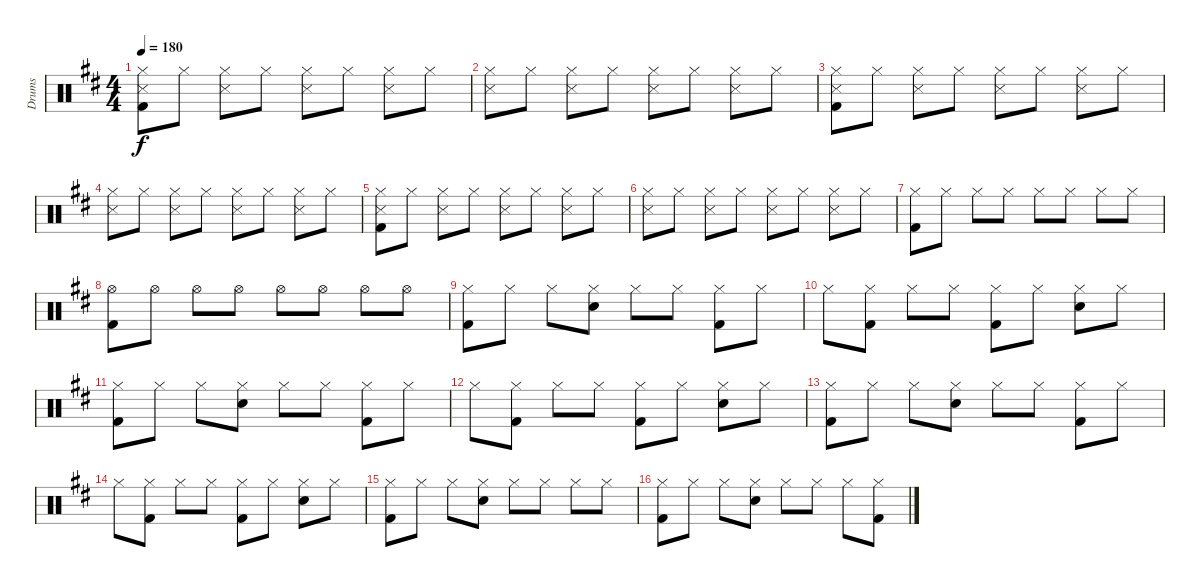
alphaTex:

\track ("Drums" "Drums") {instrument percussion}
\staff {score}
\articulation defaults
\ts (4 4)
\tempo 180
\clef neutral
\ks bminor
("Hi-Hat (closed)" "Snare (side stick) 3" "Kick (hit) 2").8{dy f} "Hi-Hat (closed)".8 ("Hi-Hat (closed)" "Snare (side stick) 3").8 "Hi-Hat (closed)".8 ("Hi-Hat (closed)" "Snare (side stick) 3").8 "Hi-Hat (closed)".8 ("Hi-Hat (closed)" "Snare (side stick) 3").8 "Hi-Hat (closed)".8 |
("Hi-Hat (closed)" "Snare (side stick) 3").8 "Hi-Hat (closed)".8 ("Hi-Hat (closed)" "Snare (side stick) 3").8 "Hi-Hat (closed)".8 ("Hi-Hat (closed)" "Snare (side stick) 3").8 "Hi-Hat (closed)".8 ("Hi-Hat (closed)" "Snare (side stick) 3").8 "Hi-Hat (closed)".8 |
("Hi-Hat (closed)" "Snare (side stick) 3" "Kick (hit) 2").8 "Hi-Hat (closed)".8 ("Hi-Hat (closed)" "Snare (side stick) 3").8 "Hi-Hat (closed)".8 ("Hi-Hat (closed)" "Snare (side stick) 3").8 "Hi-Hat (closed)".8 ("Hi-Hat (closed)" "Snare (side stick) 3").8 "Hi-Hat (closed)".8 |
("Hi-Hat (closed)" "Snare (side stick) 3").8 "Hi-Hat (closed)".8 ("Hi-Hat (closed)" "Snare (side stick) 3").8 "Hi-Hat (closed)".8 ("Hi-Hat (closed)" "Snare (side stick) 3").8 "Hi-Hat (closed)".8 ("Hi-Hat (closed)" "Snare (side stick) 3").8 "Hi-Hat (closed)".8 |
("Hi-Hat (closed)" "Snare (side stick) 3" "Kick (hit) 2").8 "Hi-Hat (closed)".8 ("Hi-Hat (closed)" "Snare (side stick) 3").8 "Hi-Hat (closed)".8 ("Hi-Hat (closed)" "Snare (side stick) 3").8 "Hi-Hat (closed)".8 ("Hi-Hat (closed)" "Snare (side stick) 3").8 "Hi-Hat (closed)".8 |
("Hi-Hat (closed)" "Snare (side stick) 3").8 "Hi-Hat (closed)".8 ("Hi-Hat (closed)" "Snare (side stick) 3").8 "Hi-Hat (closed)".8 ("Hi-Hat (closed)" "Snare (side stick) 3").8 "Hi-Hat (closed)".8 ("Hi-Hat (closed)" "Snare (side stick) 3").8 "Hi-Hat (closed)".8 |
("Hi-Hat (closed)" "Kick (hit) 2").8 "Hi-Hat (closed)".8 "Hi-Hat (closed)".8 "Hi-Hat (closed)".8 "Hi-Hat (closed)".8 "Hi-Hat (closed)".8 "Hi-Hat (closed)".8 "Hi-Hat (closed)".8 |
("Hi-Hat (open)" "Kick (hit) 2").8 "Hi-Hat (open)".8 "Hi-Hat (open)".8 "Hi-Hat (open)".8 "Hi-Hat (open)".8 "Hi-Hat (open)".8 "Hi-Hat (open)".8 "Hi-Hat (open)".8 |
("Hi-Hat (closed)" "Kick (hit) 2").8 "Hi-Hat (closed)".8 "Hi-Hat (closed)".8 ("Hi-Hat (closed)" "Electric Snare (hit)").8 "Hi-Hat (closed)".8 "Hi-Hat (closed)".8 ("Hi-Hat (closed)" "Kick (hit) 2").8 "Hi-Hat (closed)".8 |
"Hi-Hat (closed)".8 ("Hi-Hat (closed)" "Kick (hit) 2").8 "Hi-Hat (closed)".8 "Hi-Hat (closed)".8 ("Hi-Hat (closed)" "Kick (hit) 2").8 "Hi-Hat (closed)".8 ("Hi-Hat (closed)" "Electric Snare (hit)").8 "Hi-Hat (closed)".8 |
("Hi-Hat (closed)" "Kick (hit) 2").8 "Hi-Hat (closed)".8 "Hi-Hat (closed)".8 ("Hi-Hat (closed)" "Electric Snare (hit)").8 "Hi-Hat (closed)".8 "Hi-Hat (closed)".8 ("Hi-Hat (closed)" "Kick (hit) 2").8 "Hi-Hat (closed)".8 |
"Hi-Hat (closed)".8 ("Hi-Hat (closed)" "Kick (hit) 2").8 "Hi-Hat (closed)".8 "Hi-Hat (closed)".8 ("Hi-Hat (closed)" "Kick (hit) 2").8 "Hi-Hat (closed)".8 ("Hi-Hat (closed)" "Electric Snare (hit)").8 "Hi-Hat (closed)".8 |
("Hi-Hat (closed)" "Kick (hit) 2").8 "Hi-Hat (closed)".8 "Hi-Hat (closed)".8 ("Hi-Hat (closed)" "Electric Snare (hit)").8 "Hi-Hat (closed)".8 "Hi-Hat (closed)".8 ("Hi-Hat (closed)" "Kick (hit) 2").8 "Hi-Hat (closed)".8 |
"Hi-Hat (closed)".8 ("Hi-Hat (closed)" "Kick (hit) 2").8 "Hi-Hat (closed)".8 "Hi-Hat (closed)".8 ("Hi-Hat (closed)" "Kick (hit) 2").8 "Hi-Hat (closed)".8 ("Hi-Hat (closed)" "Electric Snare (hit)").8 "Hi-Hat (closed)".8 |
("Hi-Hat (closed)" "Kick (hit) 2").8 "Hi-Hat (closed)".8 "Hi-Hat (closed)".8 ("Hi-Hat (closed)" "Electric Snare (hit)").8 "Hi-Hat (closed)".8 "Hi-Hat (closed)".8 "Hi-Hat (closed)".8 "Hi-Hat (closed)".8 |
("Hi-Hat (closed)" "Kick (hit) 2").8 "Hi-Hat (closed)".8 "Hi-Hat (closed)".8 ("Hi-Hat (closed)" "Electric Snare (hit)").8 "Hi-Hat (closed)".8 "Hi-Hat (closed)".8 "Hi-Hat (closed)".8 ("Hi-Hat (closed)" "Kick (hit) 2").8
